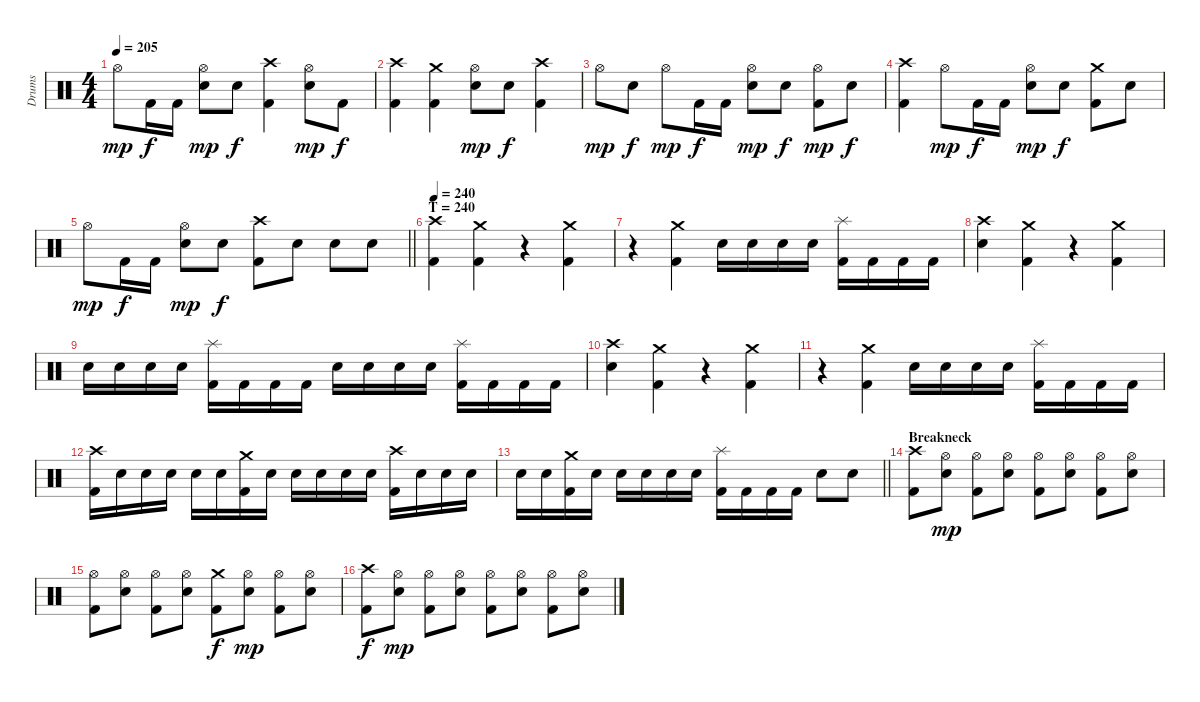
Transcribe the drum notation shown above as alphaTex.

\track ("Drums" "Drums") {instrument percussion}
\staff {score}
\articulation defaults
\ts (4 4)
\tempo 205
\clef neutral
\ks c "Hi-Hat (open)".8{dy mp} "Kick (hit) 2".16{dy f} "Kick (hit) 2".16
("Hi-Hat (open)" "Snare (hit) 2").8{dy mp} "Snare (hit) 2".8{dy f} ("Crash high (hit)" "Kick (hit) 2").4 ("Hi-Hat (open)" "Snare (hit) 2").8{dy mp} "Kick (hit) 2".8{dy f} |
("Crash high (hit)" "Kick (hit) 2").4 ("Crash medium (hit)" "Kick (hit) 2").4 ("Hi-Hat (open)" "Snare (hit) 2").8{dy mp} "Snare (hit) 2".8{dy f} ("Crash high (hit)" "Kick (hit) 2").4 |
"Hi-Hat (open)".8{dy mp} "Snare (hit) 2".8{dy f} "Hi-Hat (open)".8{dy mp} "Kick (hit) 2".16{dy f} "Kick (hit) 2".16 ("Hi-Hat (open)" "Snare (hit) 2").8{dy mp} "Snare (hit) 2".8{dy f} ("Hi-Hat (open)" "Kick (hit) 2").8{dy mp} "Snare (hit) 2".8{dy f} |
("Crash high (hit)" "Kick (hit) 2").4 "Hi-Hat (open)".8{dy mp} "Kick (hit) 2".16{dy f} "Kick (hit) 2".16 ("Hi-Hat (open)" "Snare (hit) 2").8{dy mp} "Snare (hit) 2".8{dy f} ("Crash medium (hit)" "Kick (hit) 2").8 "Snare (hit) 2".8 |
\barLineRight lightlight "Hi-Hat (open)".8{dy mp} "Kick (hit) 2".16{dy f} "Kick (hit) 2".16
("Hi-Hat (open)" "Snare (hit) 2").8{dy mp} "Snare (hit) 2".8{dy f} ("Crash high (hit)" "Kick (hit) 2").8 "Snare (hit) 2".8 "Snare (hit) 2".8 "Snare (hit) 2".8 |
\section ("" "T = 240")
\tempo 240
("Crash high (hit)" "Kick (hit) 2").4 ("Crash medium (hit)" "Kick (hit) 2").4 r.4 ("Crash medium (hit)" "Kick (hit) 2").4 |
r.4 ("Crash medium (hit)" "Kick (hit) 2").4 "Snare (hit) 2".16 "Snare (hit) 2".16 "Snare (hit) 2".16 "Snare (hit) 2".16 ("Splash (hit)" "Kick (hit) 2").16 "Kick (hit) 2".16 "Kick (hit) 2".16 "Kick (hit) 2".16 |
("Crash high (hit)" "Snare (hit) 2").4 ("Crash medium (hit)" "Kick (hit) 2").4 r.4 ("Crash medium (hit)" "Kick (hit) 2").4 |
"Snare (hit) 2".16 "Snare (hit) 2".16 "Snare (hit) 2".16 "Snare (hit) 2".16 ("Splash (hit)" "Kick (hit) 2").16 "Kick (hit) 2".16 "Kick (hit) 2".16 "Kick (hit) 2".16 "Snare (hit) 2".16 "Snare (hit) 2".16 "Snare (hit) 2".16 "Snare (hit) 2".16 ("Splash (hit)" "Kick (hit) 2").16 "Kick (hit) 2".16 "Kick (hit) 2".16 "Kick (hit) 2".16 |
("Crash high (hit)" "Snare (hit) 2").4 ("Crash medium (hit)" "Kick (hit) 2").4 r.4 ("Crash medium (hit)" "Kick (hit) 2").4 |
r.4 ("Crash medium (hit)" "Kick (hit) 2").4 "Snare (hit) 2".16 "Snare (hit) 2".16 "Snare (hit) 2".16 "Snare (hit) 2".16 ("Splash (hit)" "Kick (hit) 2").16 "Kick (hit) 2".16 "Kick (hit) 2".16 "Kick (hit) 2".16 |
("Crash high (hit)" "Kick (hit) 2").16 "Snare (hit) 2".16 "Snare (hit) 2".16 "Snare (hit) 2".16 "Snare (hit) 2".16 "Snare (hit) 2".16 ("Crash medium (hit)" "Kick (hit) 2").16 "Snare (hit) 2".16 "Snare (hit) 2".16 "Snare (hit) 2".16 "Snare (hit) 2".16 "Snare (hit) 2".16 ("Crash high (hit)" "Kick (hit) 2").16 "Snare (hit) 2".16 "Snare (hit) 2".16 "Snare (hit) 2".16 |
\barLineRight lightlight "Snare (hit) 2".16 "Snare (hit) 2".16
("Crash medium (hit)" "Kick (hit) 2").16 "Snare (hit) 2".16 "Snare (hit) 2".16 "Snare (hit) 2".16 "Snare (hit) 2".16 "Snare (hit) 2".16 ("Splash (hit)" "Kick (hit) 2").16 "Kick (hit) 2".16 "Kick (hit) 2".16 "Kick (hit) 2".16 "Snare (hit) 2".8 "Snare (hit) 2".8 |
\section ("" "Breakneck")
("Crash high (hit)" "Kick (hit) 2").8 ("Hi-Hat (open)" "Snare (hit) 2").8{dy mp} ("Hi-Hat (open)" "Kick (hit) 2").8 ("Hi-Hat (open)" "Snare (hit) 2").8 ("Hi-Hat (open)" "Kick (hit) 2").8 ("Hi-Hat (open)" "Snare (hit) 2").8 ("Hi-Hat (open)" "Kick (hit) 2").8 ("Hi-Hat (open)" "Snare (hit) 2").8 |
("Hi-Hat (open)" "Kick (hit) 2").8 ("Hi-Hat (open)" "Snare (hit) 2").8 ("Hi-Hat (open)" "Kick (hit) 2").8 ("Hi-Hat (open)" "Snare (hit) 2").8 ("Crash medium (hit)" "Kick (hit) 2").8{dy f} ("Hi-Hat (open)" "Snare (hit) 2").8{dy mp} ("Hi-Hat (open)" "Kick (hit) 2").8 ("Hi-Hat (open)" "Snare (hit) 2").8 |
("Crash high (hit)" "Kick (hit) 2").8{dy f} ("Hi-Hat (open)" "Snare (hit) 2").8{dy mp} ("Hi-Hat (open)" "Kick (hit) 2").8 ("Hi-Hat (open)" "Snare (hit) 2").8 ("Hi-Hat (open)" "Kick (hit) 2").8 ("Hi-Hat (open)" "Snare (hit) 2").8 ("Hi-Hat (open)" "Kick (hit) 2").8 ("Hi-Hat (open)" "Snare (hit) 2").8
